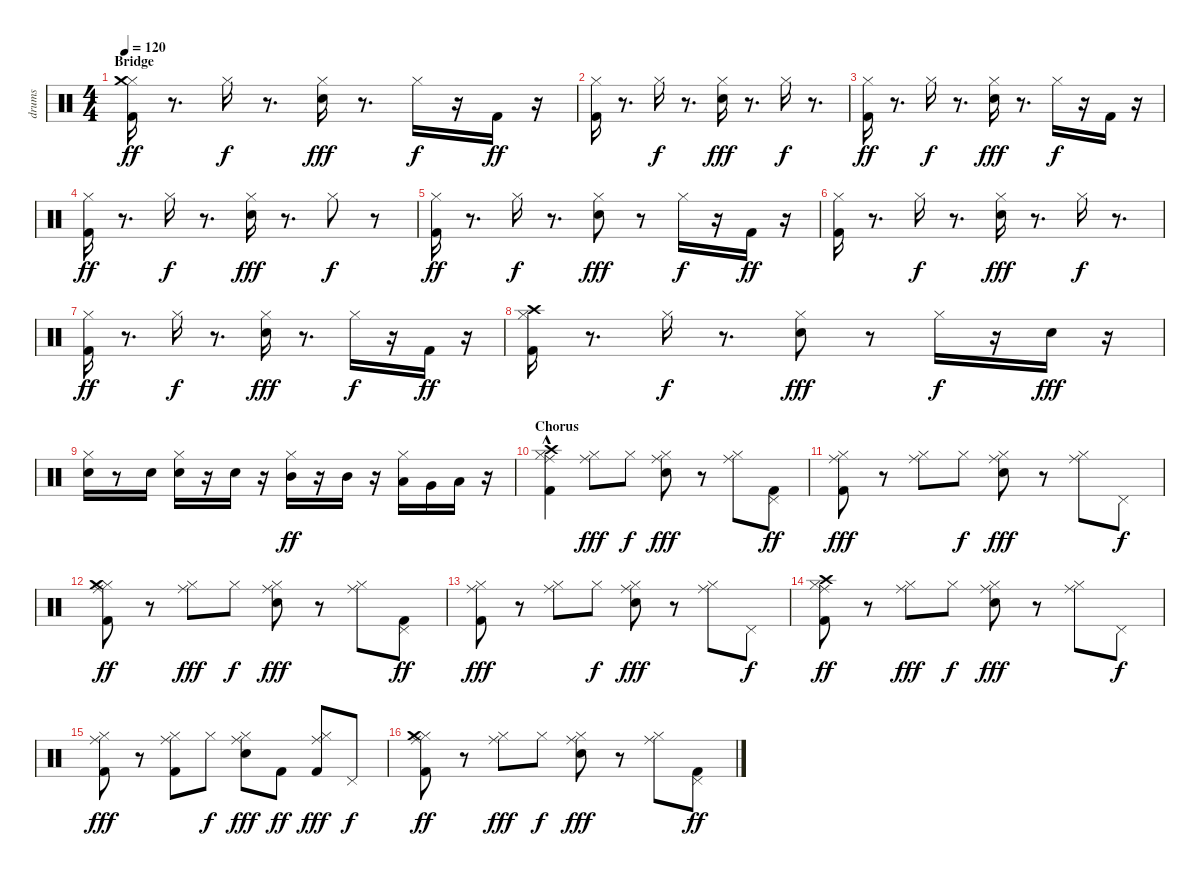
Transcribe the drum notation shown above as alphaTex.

\track ("drums" "drums") {instrument percussion}
\staff {score}
\articulation defaults
\ts (4 4)
\section ("" "Bridge")
\tempo 120
\clef neutral
\ks c
("Kick (hit) 2" "Hi-Hat (closed)" "Crash medium (hit)").16{dy ff} r.8{d} "Hi-Hat (closed)".16{dy f} r.8{d} ("Snare (hit) 2" "Hi-Hat (closed)").16{dy fff} r.8{d} "Hi-Hat (closed)".16{dy f} r.16 "Kick (hit) 2".16{dy ff} r.16 |
("Kick (hit) 2" "Hi-Hat (closed)").16 r.8{d} "Hi-Hat (closed)".16{dy f} r.8{d} ("Snare (hit) 2" "Hi-Hat (closed)").16{dy fff} r.8{d} "Hi-Hat (closed)".16{dy f} r.8{d} |
("Kick (hit) 2" "Hi-Hat (closed)").16{dy ff} r.8{d} "Hi-Hat (closed)".16{dy f} r.8{d} ("Snare (hit) 2" "Hi-Hat (closed)").16{dy fff} r.8{d} "Hi-Hat (closed)".16{dy f} r.16 "Kick (hit) 2".16 r.16 |
("Kick (hit) 2" "Hi-Hat (closed)").16{dy ff} r.8{d} "Hi-Hat (closed)".16{dy f} r.8{d} ("Snare (hit) 2" "Hi-Hat (closed)").16{dy fff} r.8{d} "Hi-Hat (closed)".8{dy f} r.8 |
("Kick (hit) 2" "Hi-Hat (closed)").16{dy ff} r.8{d} "Hi-Hat (closed)".16{dy f} r.8{d} ("Snare (hit) 2" "Hi-Hat (closed)").8{dy fff} r.8 "Hi-Hat (closed)".16{dy f} r.16 "Kick (hit) 2".16{dy ff} r.16 |
("Kick (hit) 2" "Hi-Hat (closed)").16 r.8{d} "Hi-Hat (closed)".16{dy f} r.8{d} ("Snare (hit) 2" "Hi-Hat (closed)").16{dy fff} r.8{d} "Hi-Hat (closed)".16{dy f} r.8{d} |
("Kick (hit) 2" "Hi-Hat (closed)").16{dy ff} r.8{d} "Hi-Hat (closed)".16{dy f} r.8{d} ("Snare (hit) 2" "Hi-Hat (closed)").16{dy fff} r.8{d} "Hi-Hat (closed)".16{dy f} r.16 "Kick (hit) 2".16{dy ff} r.16 |
("Kick (hit) 2" "Hi-Hat (closed)" "Crash high (hit)").16 r.8{d} "Hi-Hat (closed)".16{dy f} r.8{d} ("Snare (hit) 2" "Hi-Hat (closed)").8{dy fff} r.8 "Hi-Hat (closed)".16{dy f} r.16 "Snare (hit) 2".16{dy fff} r.16 |
("Snare (hit) 2" "Hi-Hat (closed)").16 r.8 "Snare (hit) 2".16 ("Snare (hit) 2" "Hi-Hat (closed)").16 r.16 "Snare (hit) 2".16 r.16 ("Hi-Hat (closed)" "Mid Tom (hit)").16{dy ff} r.16 "Mid Tom (hit)".16 r.16 ("Hi-Hat (closed)" "Low Tom (hit)").16 "Very Low Tom (hit)".16 "Low Floor Tom (hit)".16 r.16 |
\section ("" "Chorus")
("Kick (hit) 2" "Hi-Hat (closed)" "Ride (middle)" "Crash high (hit)"{hac}).4 ("Hi-Hat (closed)" "Ride (middle)").8{dy fff} "Hi-Hat (closed)".8{dy f} ("Snare (hit) 2" "Hi-Hat (closed)" "Ride (middle)").8{dy fff} r.8 ("Hi-Hat (closed)" "Ride (middle)").8 ("Kick (hit) 2" "Pedal Hi-Hat (hit)").8{dy ff} |
("Kick (hit) 2" "Hi-Hat (closed)" "Ride (middle)").8{dy fff} r.8 ("Hi-Hat (closed)" "Ride (middle)").8 "Hi-Hat (closed)".8{dy f} ("Snare (hit) 2" "Hi-Hat (closed)" "Ride (middle)").8{dy fff} r.8 ("Hi-Hat (closed)" "Ride (middle)").8 "Pedal Hi-Hat (hit)".8{dy f} |
("Kick (hit) 2" "Hi-Hat (closed)" "Ride (middle)" "Crash medium (hit)").8{dy ff} r.8 ("Hi-Hat (closed)" "Ride (middle)").8{dy fff} "Hi-Hat (closed)".8{dy f} ("Snare (hit) 2" "Hi-Hat (closed)" "Ride (middle)").8{dy fff} r.8 ("Hi-Hat (closed)" "Ride (middle)").8 ("Kick (hit) 2" "Pedal Hi-Hat (hit)").8{dy ff} |
("Kick (hit) 2" "Hi-Hat (closed)" "Ride (middle)").8{dy fff} r.8 ("Hi-Hat (closed)" "Ride (middle)").8 "Hi-Hat (closed)".8{dy f} ("Snare (hit) 2" "Hi-Hat (closed)" "Ride (middle)").8{dy fff} r.8 ("Hi-Hat (closed)" "Ride (middle)").8 "Pedal Hi-Hat (hit)".8{dy f} |
("Kick (hit) 2" "Hi-Hat (closed)" "Ride (middle)" "Crash high (hit)").8{dy ff} r.8 ("Hi-Hat (closed)" "Ride (middle)").8{dy fff} "Hi-Hat (closed)".8{dy f} ("Snare (hit) 2" "Hi-Hat (closed)" "Ride (middle)").8{dy fff} r.8 ("Hi-Hat (closed)" "Ride (middle)").8 "Pedal Hi-Hat (hit)".8{dy f} |
("Kick (hit) 2" "Hi-Hat (closed)" "Ride (middle)").8{dy fff} r.8 ("Kick (hit) 2" "Hi-Hat (closed)" "Ride (middle)").8 "Hi-Hat (closed)".8{dy f} ("Snare (hit) 2" "Hi-Hat (closed)" "Ride (middle)").8{dy fff} "Kick (hit) 2".8{dy ff} ("Kick (hit) 2" "Hi-Hat (closed)" "Ride (middle)").8{dy fff} "Pedal Hi-Hat (hit)".8{dy f} |
("Kick (hit) 2" "Hi-Hat (closed)" "Ride (middle)" "Crash medium (hit)").8{dy ff} r.8 ("Hi-Hat (closed)" "Ride (middle)").8{dy fff} "Hi-Hat (closed)".8{dy f} ("Snare (hit) 2" "Hi-Hat (closed)" "Ride (middle)").8{dy fff} r.8 ("Hi-Hat (closed)" "Ride (middle)").8 ("Kick (hit) 2" "Pedal Hi-Hat (hit)").8{dy ff}
